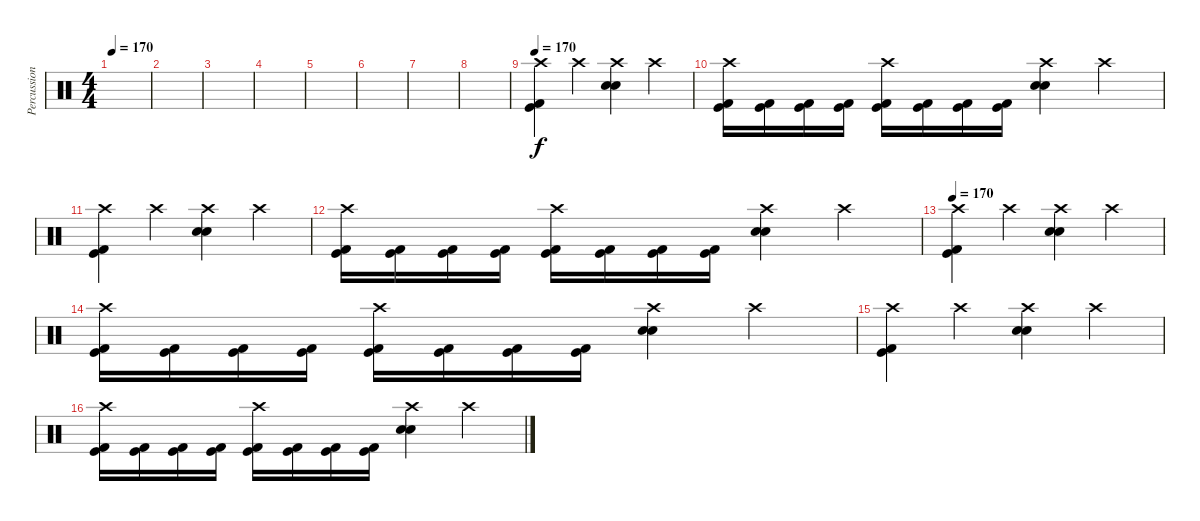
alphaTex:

\track ("Percussion" "Percussion") {instrument percussion}
\staff {score}
\articulation defaults
\ts (4 4)
\tempo 170
\clef neutral
\ks c
|
|
|
|
|
|
|
|
\tempo 170
("Crash high (hit)" "Kick (hit) 2" "Kick (hit)").4 "Crash high (hit)".4 ("Crash high (hit)" "Electric Snare (hit)" "Electric Snare (hit)").4 "Crash high (hit)".4 |
("Crash high (hit)" "Kick (hit) 2" "Kick (hit)").16 ("Kick (hit) 2" "Kick (hit)").16 ("Kick (hit) 2" "Kick (hit)").16 ("Kick (hit) 2" "Kick (hit)").16 ("Crash high (hit)" "Kick (hit) 2" "Kick (hit)").16 ("Kick (hit) 2" "Kick (hit)").16 ("Kick (hit) 2" "Kick (hit)").16 ("Kick (hit) 2" "Kick (hit)").16 ("Crash high (hit)" "Electric Snare (hit)" "Electric Snare (hit)").4 "Crash high (hit)".4 |
("Crash high (hit)" "Kick (hit) 2" "Kick (hit)").4 "Crash high (hit)".4 ("Crash high (hit)" "Electric Snare (hit)" "Electric Snare (hit)").4 "Crash high (hit)".4 |
("Crash high (hit)" "Kick (hit) 2" "Kick (hit)").16 ("Kick (hit) 2" "Kick (hit)").16 ("Kick (hit) 2" "Kick (hit)").16 ("Kick (hit) 2" "Kick (hit)").16 ("Crash high (hit)" "Kick (hit) 2" "Kick (hit)").16 ("Kick (hit) 2" "Kick (hit)").16 ("Kick (hit) 2" "Kick (hit)").16 ("Kick (hit) 2" "Kick (hit)").16 ("Crash high (hit)" "Electric Snare (hit)" "Electric Snare (hit)").4 "Crash high (hit)".4 |
\tempo 170
("Crash high (hit)" "Kick (hit) 2" "Kick (hit)").4 "Crash high (hit)".4 ("Crash high (hit)" "Electric Snare (hit)" "Electric Snare (hit)").4 "Crash high (hit)".4 |
("Crash high (hit)" "Kick (hit) 2" "Kick (hit)").16 ("Kick (hit) 2" "Kick (hit)").16 ("Kick (hit) 2" "Kick (hit)").16 ("Kick (hit) 2" "Kick (hit)").16 ("Crash high (hit)" "Kick (hit) 2" "Kick (hit)").16 ("Kick (hit) 2" "Kick (hit)").16 ("Kick (hit) 2" "Kick (hit)").16 ("Kick (hit) 2" "Kick (hit)").16 ("Crash high (hit)" "Electric Snare (hit)" "Electric Snare (hit)").4 "Crash high (hit)".4 |
("Crash high (hit)" "Kick (hit) 2" "Kick (hit)").4 "Crash high (hit)".4 ("Crash high (hit)" "Electric Snare (hit)" "Electric Snare (hit)").4 "Crash high (hit)".4 |
("Crash high (hit)" "Kick (hit) 2" "Kick (hit)").16 ("Kick (hit) 2" "Kick (hit)").16 ("Kick (hit) 2" "Kick (hit)").16 ("Kick (hit) 2" "Kick (hit)").16 ("Crash high (hit)" "Kick (hit) 2" "Kick (hit)").16 ("Kick (hit) 2" "Kick (hit)").16 ("Kick (hit) 2" "Kick (hit)").16 ("Kick (hit) 2" "Kick (hit)").16 ("Crash high (hit)" "Electric Snare (hit)" "Electric Snare (hit)").4 "Crash high (hit)".4
